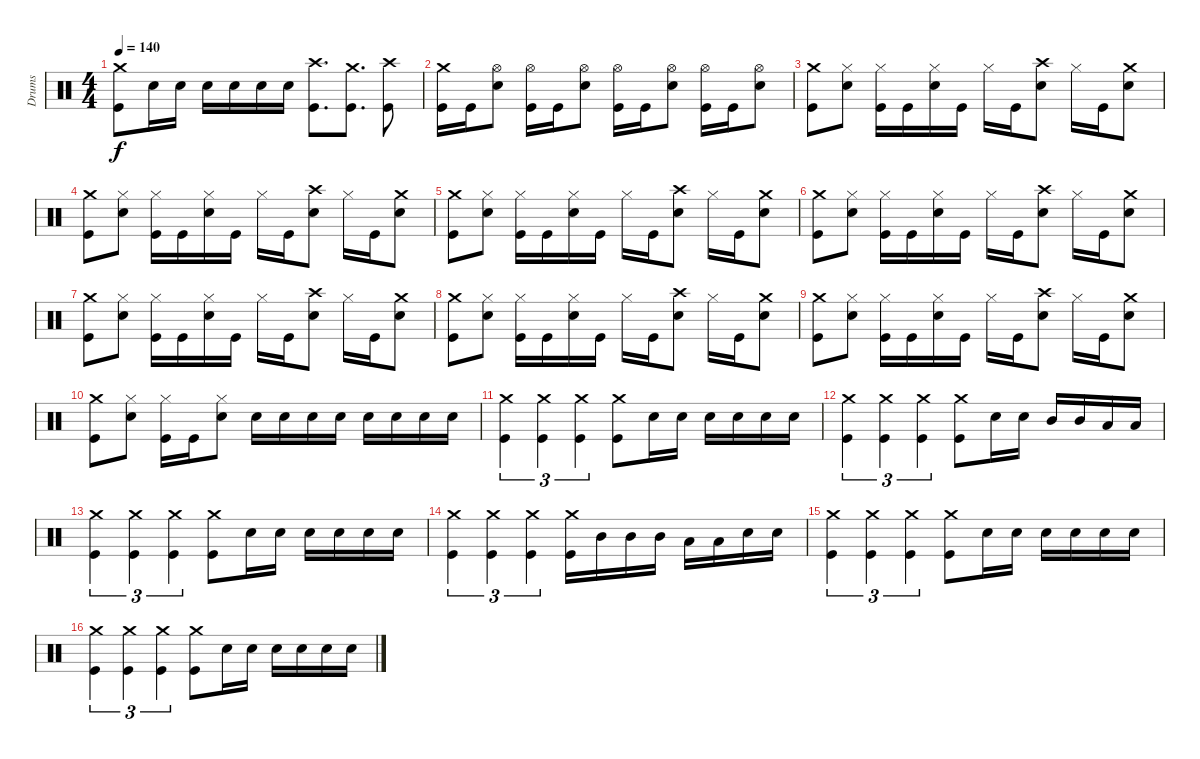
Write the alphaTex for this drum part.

\track ("Drums" "Drums") {instrument percussion}
\staff {score}
\articulation defaults
\ts (4 4)
\tempo 140
\clef neutral
\ks c
("Crash medium (hit)" "Kick (hit)").8{dy f} "Snare (hit) 2".16 "Snare (hit) 2".16 "Snare (hit) 2".16 "Snare (hit) 2".16 "Snare (hit) 2".16 "Snare (hit) 2".16 ("Crash high (hit)" "Kick (hit)").8{d} ("Crash medium (hit)" "Kick (hit)").8{d} ("Crash high (hit)" "Kick (hit)").8 |
("Crash medium (hit)" "Kick (hit)").16 "Kick (hit)".16 ("Hi-Hat (open)" "Snare (hit) 2").8 ("Hi-Hat (open)" "Kick (hit)").16 "Kick (hit)".16 ("Hi-Hat (open)" "Snare (hit) 2").8 ("Hi-Hat (open)" "Kick (hit)").16 "Kick (hit)".16 ("Hi-Hat (open)" "Snare (hit) 2").8 ("Hi-Hat (open)" "Kick (hit)").16 "Kick (hit)".16 ("Hi-Hat (open)" "Snare (hit) 2").8 |
("Crash medium (hit)" "Kick (hit)").8 ("Hi-Hat (closed)" "Snare (hit) 2").8 ("Hi-Hat (closed)" "Kick (hit)").16 "Kick (hit)".16 ("Hi-Hat (closed)" "Snare (hit) 2").16 "Kick (hit)".16 "Hi-Hat (closed)".16 "Kick (hit)".16 ("Crash high (hit)" "Snare (hit) 2").8 "Hi-Hat (closed)".16 "Kick (hit)".16 ("Crash medium (hit)" "Snare (hit) 2").8 |
("Crash medium (hit)" "Kick (hit)").8 ("Hi-Hat (closed)" "Snare (hit) 2").8 ("Hi-Hat (closed)" "Kick (hit)").16 "Kick (hit)".16 ("Hi-Hat (closed)" "Snare (hit) 2").16 "Kick (hit)".16 "Hi-Hat (closed)".16 "Kick (hit)".16 ("Crash high (hit)" "Snare (hit) 2").8 "Hi-Hat (closed)".16 "Kick (hit)".16 ("Crash medium (hit)" "Snare (hit) 2").8 |
("Crash medium (hit)" "Kick (hit)").8 ("Hi-Hat (closed)" "Snare (hit) 2").8 ("Hi-Hat (closed)" "Kick (hit)").16 "Kick (hit)".16 ("Hi-Hat (closed)" "Snare (hit) 2").16 "Kick (hit)".16 "Hi-Hat (closed)".16 "Kick (hit)".16 ("Crash high (hit)" "Snare (hit) 2").8 "Hi-Hat (closed)".16 "Kick (hit)".16 ("Crash medium (hit)" "Snare (hit) 2").8 |
("Crash medium (hit)" "Kick (hit)").8 ("Hi-Hat (closed)" "Snare (hit) 2").8 ("Hi-Hat (closed)" "Kick (hit)").16 "Kick (hit)".16 ("Hi-Hat (closed)" "Snare (hit) 2").16 "Kick (hit)".16 "Hi-Hat (closed)".16 "Kick (hit)".16 ("Crash high (hit)" "Snare (hit) 2").8 "Hi-Hat (closed)".16 "Kick (hit)".16 ("Crash medium (hit)" "Snare (hit) 2").8 |
("Crash medium (hit)" "Kick (hit)").8 ("Hi-Hat (closed)" "Snare (hit) 2").8 ("Hi-Hat (closed)" "Kick (hit)").16 "Kick (hit)".16 ("Hi-Hat (closed)" "Snare (hit) 2").16 "Kick (hit)".16 "Hi-Hat (closed)".16 "Kick (hit)".16 ("Crash high (hit)" "Snare (hit) 2").8 "Hi-Hat (closed)".16 "Kick (hit)".16 ("Crash medium (hit)" "Snare (hit) 2").8 |
("Crash medium (hit)" "Kick (hit)").8 ("Hi-Hat (closed)" "Snare (hit) 2").8 ("Hi-Hat (closed)" "Kick (hit)").16 "Kick (hit)".16 ("Hi-Hat (closed)" "Snare (hit) 2").16 "Kick (hit)".16 "Hi-Hat (closed)".16 "Kick (hit)".16 ("Crash high (hit)" "Snare (hit) 2").8 "Hi-Hat (closed)".16 "Kick (hit)".16 ("Crash medium (hit)" "Snare (hit) 2").8 |
("Crash medium (hit)" "Kick (hit)").8 ("Hi-Hat (closed)" "Snare (hit) 2").8 ("Hi-Hat (closed)" "Kick (hit)").16 "Kick (hit)".16 ("Hi-Hat (closed)" "Snare (hit) 2").16 "Kick (hit)".16 "Hi-Hat (closed)".16 "Kick (hit)".16 ("Crash high (hit)" "Snare (hit) 2").8 "Hi-Hat (closed)".16 "Kick (hit)".16 ("Crash medium (hit)" "Snare (hit) 2").8 |
("Crash medium (hit)" "Kick (hit)").8 ("Hi-Hat (closed)" "Snare (hit) 2").8 ("Hi-Hat (closed)" "Kick (hit)").16 "Kick (hit)".16 ("Hi-Hat (closed)" "Snare (hit) 2").8 "Snare (hit) 2".16 "Snare (hit) 2".16 "Snare (hit) 2".16 "Snare (hit) 2".16 "Snare (hit) 2".16 "Snare (hit) 2".16 "Snare (hit) 2".16 "Snare (hit) 2".16 |
("Crash medium (hit)" "Kick (hit)").4{tu (3 2)} ("Crash medium (hit)" "Kick (hit)").4{tu (3 2)} ("Crash medium (hit)" "Kick (hit)").4{tu (3 2)} ("Crash medium (hit)" "Kick (hit)").8 "Snare (hit) 2".16 "Snare (hit) 2".16 "Snare (hit) 2".16 "Snare (hit) 2".16 "Snare (hit) 2".16 "Snare (hit) 2".16 |
("Crash medium (hit)" "Kick (hit)").4{tu (3 2)} ("Crash medium (hit)" "Kick (hit)").4{tu (3 2)} ("Crash medium (hit)" "Kick (hit)").4{tu (3 2)} ("Crash medium (hit)" "Kick (hit)").8 "Snare (hit) 2".16 "Snare (hit) 2".16 "Mid Tom (hit)".16 "Mid Tom (hit)".16 "Low Tom (hit)".16 "Low Tom (hit)".16 |
("Crash medium (hit)" "Kick (hit)").4{tu (3 2)} ("Crash medium (hit)" "Kick (hit)").4{tu (3 2)} ("Crash medium (hit)" "Kick (hit)").4{tu (3 2)} ("Crash medium (hit)" "Kick (hit)").8 "Snare (hit) 2".16 "Snare (hit) 2".16 "Snare (hit) 2".16 "Snare (hit) 2".16 "Snare (hit) 2".16 "Snare (hit) 2".16 |
("Crash medium (hit)" "Kick (hit)").4{tu (3 2)} ("Crash medium (hit)" "Kick (hit)").4{tu (3 2)} ("Crash medium (hit)" "Kick (hit)").4{tu (3 2)} ("Crash medium (hit)" "Kick (hit)").16 "Mid Tom (hit)".16 "Mid Tom (hit)".16 "Mid Tom (hit)".16 "Low Tom (hit)".16 "Low Tom (hit)".16 "Snare (hit) 2".16 "Snare (hit) 2".16 |
("Crash medium (hit)" "Kick (hit)").4{tu (3 2)} ("Crash medium (hit)" "Kick (hit)").4{tu (3 2)} ("Crash medium (hit)" "Kick (hit)").4{tu (3 2)} ("Crash medium (hit)" "Kick (hit)").8 "Snare (hit) 2".16 "Snare (hit) 2".16 "Snare (hit) 2".16 "Snare (hit) 2".16 "Snare (hit) 2".16 "Snare (hit) 2".16 |
("Crash medium (hit)" "Kick (hit)").4{tu (3 2)} ("Crash medium (hit)" "Kick (hit)").4{tu (3 2)} ("Crash medium (hit)" "Kick (hit)").4{tu (3 2)} ("Crash medium (hit)" "Kick (hit)").8 "Snare (hit) 2".16 "Snare (hit) 2".16 "Snare (hit) 2".16 "Snare (hit) 2".16 "Snare (hit) 2".16 "Snare (hit) 2".16
